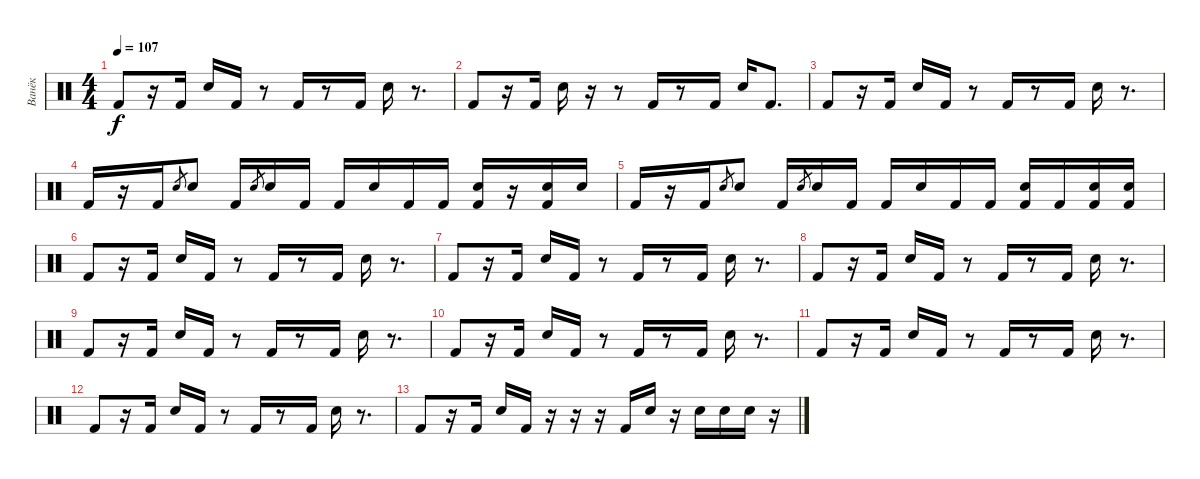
\track ("Ванёк" "Ванёк") {instrument percussion}
\staff {score}
\articulation defaults
\ts (4 4)
\tempo 107
\clef neutral
\ks c "Kick (hit) 2".8{dy f}
r.16 "Kick (hit) 2".16 "Snare (hit) 2".16 "Kick (hit) 2".16 r.8 "Kick (hit) 2".16 r.8 "Kick (hit) 2".16 "Snare (hit) 2".16 r.8{d} |
"Kick (hit) 2".8 r.16 "Kick (hit) 2".16 "Snare (hit) 2".16 r.16 r.8 "Kick (hit) 2".16 r.8 "Kick (hit) 2".16 "Snare (hit) 2".16 "Kick (hit) 2".8{d} |
"Kick (hit) 2".8 r.16 "Kick (hit) 2".16 "Snare (hit) 2".16 "Kick (hit) 2".16 r.8 "Kick (hit) 2".16 r.8 "Kick (hit) 2".16 "Snare (hit) 2".16 r.8{d} |
"Kick (hit) 2".16 r.16 "Kick (hit) 2".16 "Electric Snare (hit)".8{gr} "Electric Snare (hit)".8 "Kick (hit) 2".16 "Electric Snare (hit)".8{gr} "Electric Snare (hit)".16 "Kick (hit) 2".16 "Kick (hit) 2".16 "Electric Snare (hit)".16 "Kick (hit) 2".16 "Kick (hit) 2".16 ("Electric Snare (hit)" "Kick (hit) 2").16 r.16 ("Electric Snare (hit)" "Kick (hit) 2").16 "Electric Snare (hit)".16 |
"Kick (hit) 2".16 r.16 "Kick (hit) 2".16 "Electric Snare (hit)".8{gr} "Electric Snare (hit)".8 "Kick (hit) 2".16 "Electric Snare (hit)".8{gr} "Electric Snare (hit)".16 "Kick (hit) 2".16 "Kick (hit) 2".16 "Electric Snare (hit)".16 "Kick (hit) 2".16 "Kick (hit) 2".16 ("Electric Snare (hit)" "Kick (hit) 2").16 "Kick (hit) 2".16 ("Electric Snare (hit)" "Kick (hit) 2").16 ("Electric Snare (hit)" "Kick (hit) 2").16 |
"Kick (hit) 2".8 r.16 "Kick (hit) 2".16 "Snare (hit) 2".16 "Kick (hit) 2".16 r.8 "Kick (hit) 2".16 r.8 "Kick (hit) 2".16 "Snare (hit) 2".16 r.8{d} |
"Kick (hit) 2".8 r.16 "Kick (hit) 2".16 "Snare (hit) 2".16 "Kick (hit) 2".16 r.8 "Kick (hit) 2".16 r.8 "Kick (hit) 2".16 "Snare (hit) 2".16 r.8{d} |
"Kick (hit) 2".8 r.16 "Kick (hit) 2".16 "Snare (hit) 2".16 "Kick (hit) 2".16 r.8 "Kick (hit) 2".16 r.8 "Kick (hit) 2".16 "Snare (hit) 2".16 r.8{d} |
"Kick (hit) 2".8 r.16 "Kick (hit) 2".16 "Snare (hit) 2".16 "Kick (hit) 2".16 r.8 "Kick (hit) 2".16 r.8 "Kick (hit) 2".16 "Snare (hit) 2".16 r.8{d} |
"Kick (hit) 2".8 r.16 "Kick (hit) 2".16 "Snare (hit) 2".16 "Kick (hit) 2".16 r.8 "Kick (hit) 2".16 r.8 "Kick (hit) 2".16 "Snare (hit) 2".16 r.8{d} |
"Kick (hit) 2".8 r.16 "Kick (hit) 2".16 "Snare (hit) 2".16 "Kick (hit) 2".16 r.8 "Kick (hit) 2".16 r.8 "Kick (hit) 2".16 "Snare (hit) 2".16 r.8{d} |
"Kick (hit) 2".8 r.16 "Kick (hit) 2".16 "Snare (hit) 2".16 "Kick (hit) 2".16 r.8 "Kick (hit) 2".16 r.8 "Kick (hit) 2".16 "Snare (hit) 2".16 r.8{d} |
"Kick (hit) 2".8 r.16 "Kick (hit) 2".16 "Snare (hit) 2".16 "Kick (hit) 2".16 r.16 r.16 r.16 "Kick (hit) 2".16 "Snare (hit) 2".16 r.16 "Snare (hit) 2".16 "Snare (hit) 2".16 "Snare (hit) 2".16 r.16
